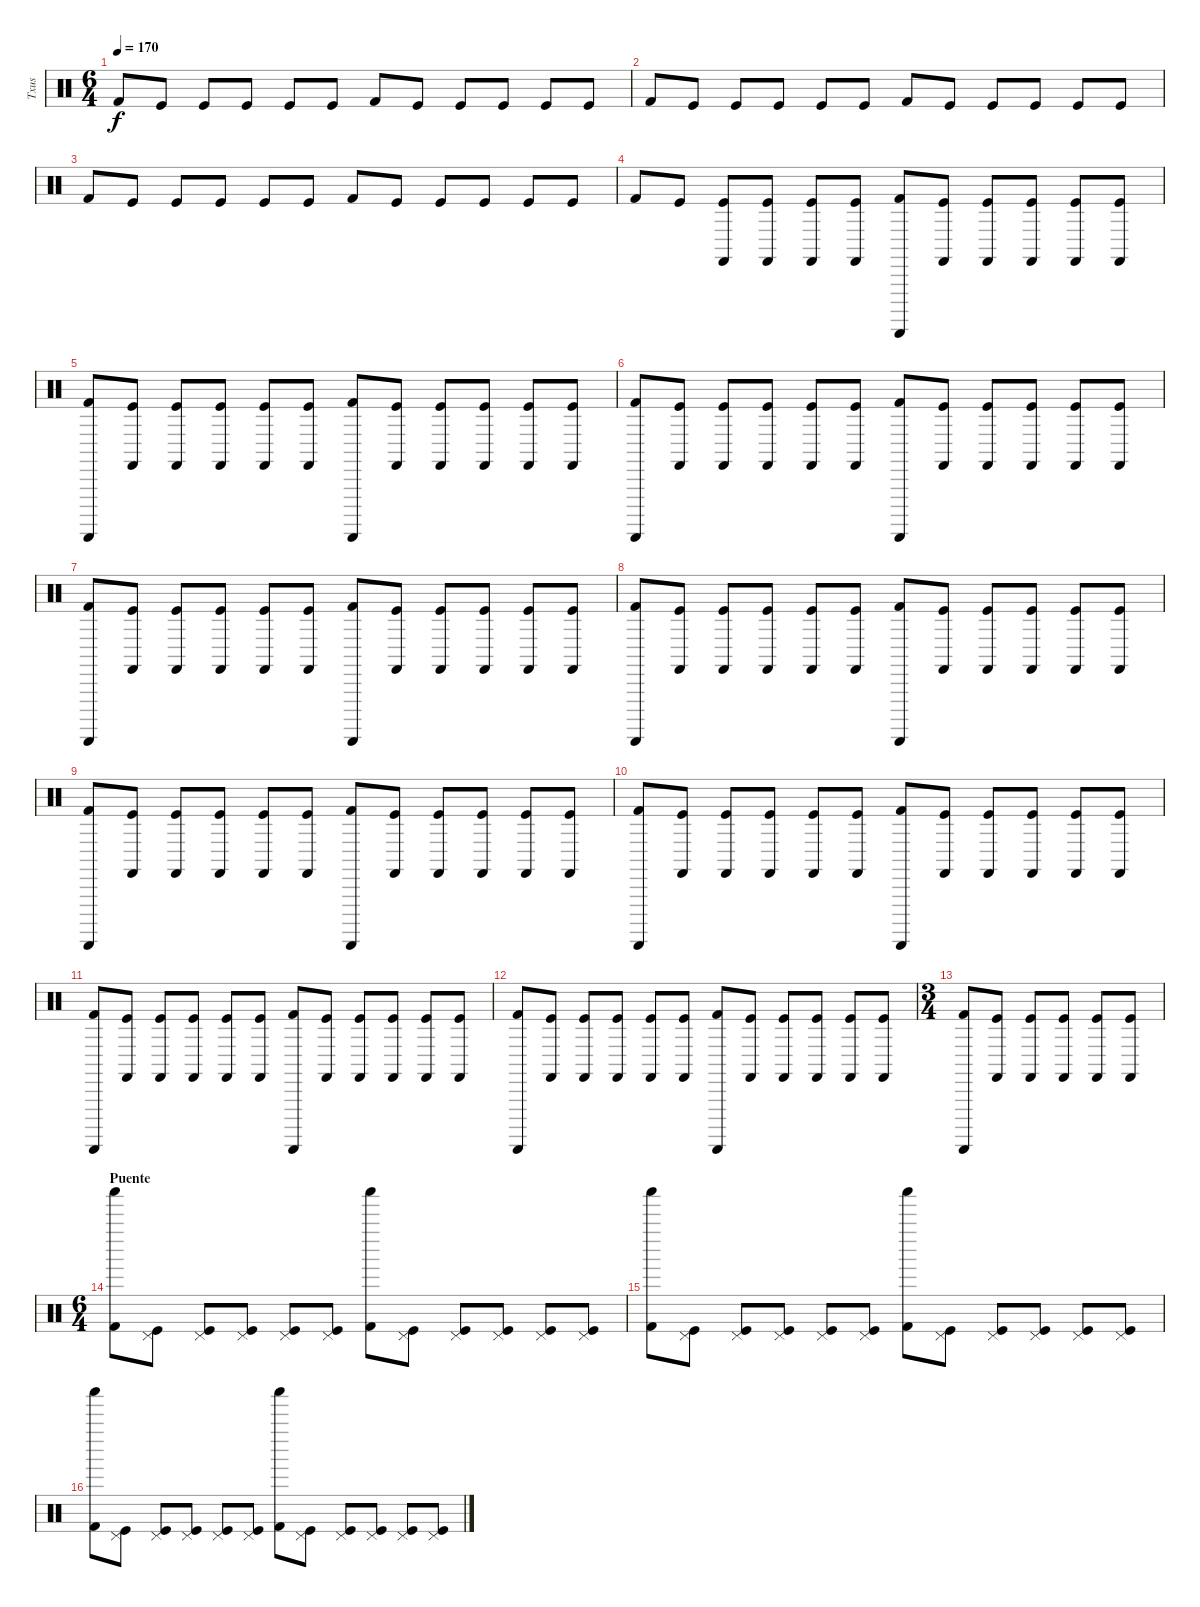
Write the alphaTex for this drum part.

\track ("Txus" "Txus") {instrument percussion}
\staff {score}
\articulation defaults
\ts (6 4)
\tempo 170
\clef neutral
\ks c "Kick (hit) 2".8{dy f} "Kick (hit)".8 "Kick (hit)".8 "Kick (hit)".8 "Kick (hit)".8 "Kick (hit)".8 "Kick (hit) 2".8 "Kick (hit)".8 "Kick (hit)".8 "Kick (hit)".8 "Kick (hit)".8 "Kick (hit)".8
|
"Kick (hit) 2".8 "Kick (hit)".8 "Kick (hit)".8 "Kick (hit)".8 "Kick (hit)".8 "Kick (hit)".8 "Kick (hit) 2".8 "Kick (hit)".8 "Kick (hit)".8 "Kick (hit)".8 "Kick (hit)".8 "Kick (hit)".8 |
"Kick (hit) 2".8 "Kick (hit)".8 "Kick (hit)".8 "Kick (hit)".8 "Kick (hit)".8 "Kick (hit)".8 "Kick (hit) 2".8 "Kick (hit)".8 "Kick (hit)".8 "Kick (hit)".8 "Kick (hit)".8 "Kick (hit)".8 |
"Kick (hit) 2".8 "Kick (hit)".8 ("Kick (hit)" "Castanets (hit)").8 ("Kick (hit)" "Castanets (hit)").8 ("Kick (hit)" "Castanets (hit)").8 ("Kick (hit)" "Castanets (hit)").8 ("Kick (hit) 2" "Guiro (scrap-return)").8 ("Kick (hit)" "Castanets (hit)").8 ("Kick (hit)" "Castanets (hit)").8 ("Kick (hit)" "Castanets (hit)").8 ("Kick (hit)" "Castanets (hit)").8 ("Kick (hit)" "Castanets (hit)").8 |
("Kick (hit) 2" "Guiro (scrap-return)").8 ("Kick (hit)" "Castanets (hit)").8 ("Kick (hit)" "Castanets (hit)").8 ("Kick (hit)" "Castanets (hit)").8 ("Kick (hit)" "Castanets (hit)").8 ("Kick (hit)" "Castanets (hit)").8 ("Kick (hit) 2" "Guiro (scrap-return)").8 ("Kick (hit)" "Castanets (hit)").8 ("Kick (hit)" "Castanets (hit)").8 ("Kick (hit)" "Castanets (hit)").8 ("Kick (hit)" "Castanets (hit)").8 ("Kick (hit)" "Castanets (hit)").8 |
("Kick (hit) 2" "Guiro (scrap-return)").8 ("Kick (hit)" "Castanets (hit)").8 ("Kick (hit)" "Castanets (hit)").8 ("Kick (hit)" "Castanets (hit)").8 ("Kick (hit)" "Castanets (hit)").8 ("Kick (hit)" "Castanets (hit)").8 ("Kick (hit) 2" "Guiro (scrap-return)").8 ("Kick (hit)" "Castanets (hit)").8 ("Kick (hit)" "Castanets (hit)").8 ("Kick (hit)" "Castanets (hit)").8 ("Kick (hit)" "Castanets (hit)").8 ("Kick (hit)" "Castanets (hit)").8 |
("Kick (hit) 2" "Guiro (scrap-return)").8 ("Kick (hit)" "Castanets (hit)").8 ("Kick (hit)" "Castanets (hit)").8 ("Kick (hit)" "Castanets (hit)").8 ("Kick (hit)" "Castanets (hit)").8 ("Kick (hit)" "Castanets (hit)").8 ("Kick (hit) 2" "Guiro (scrap-return)").8 ("Kick (hit)" "Castanets (hit)").8 ("Kick (hit)" "Castanets (hit)").8 ("Kick (hit)" "Castanets (hit)").8 ("Kick (hit)" "Castanets (hit)").8 ("Kick (hit)" "Castanets (hit)").8 |
("Kick (hit) 2" "Guiro (scrap-return)").8 ("Kick (hit)" "Castanets (hit)").8 ("Kick (hit)" "Castanets (hit)").8 ("Kick (hit)" "Castanets (hit)").8 ("Kick (hit)" "Castanets (hit)").8 ("Kick (hit)" "Castanets (hit)").8 ("Kick (hit) 2" "Guiro (scrap-return)").8 ("Kick (hit)" "Castanets (hit)").8 ("Kick (hit)" "Castanets (hit)").8 ("Kick (hit)" "Castanets (hit)").8 ("Kick (hit)" "Castanets (hit)").8 ("Kick (hit)" "Castanets (hit)").8 |
("Kick (hit) 2" "Guiro (scrap-return)").8 ("Kick (hit)" "Castanets (hit)").8 ("Kick (hit)" "Castanets (hit)").8 ("Kick (hit)" "Castanets (hit)").8 ("Kick (hit)" "Castanets (hit)").8 ("Kick (hit)" "Castanets (hit)").8 ("Kick (hit) 2" "Guiro (scrap-return)").8 ("Kick (hit)" "Castanets (hit)").8 ("Kick (hit)" "Castanets (hit)").8 ("Kick (hit)" "Castanets (hit)").8 ("Kick (hit)" "Castanets (hit)").8 ("Kick (hit)" "Castanets (hit)").8 |
("Kick (hit) 2" "Guiro (scrap-return)").8 ("Kick (hit)" "Castanets (hit)").8 ("Kick (hit)" "Castanets (hit)").8 ("Kick (hit)" "Castanets (hit)").8 ("Kick (hit)" "Castanets (hit)").8 ("Kick (hit)" "Castanets (hit)").8 ("Kick (hit) 2" "Guiro (scrap-return)").8 ("Kick (hit)" "Castanets (hit)").8 ("Kick (hit)" "Castanets (hit)").8 ("Kick (hit)" "Castanets (hit)").8 ("Kick (hit)" "Castanets (hit)").8 ("Kick (hit)" "Castanets (hit)").8 |
("Kick (hit) 2" "Guiro (scrap-return)").8 ("Kick (hit)" "Castanets (hit)").8 ("Kick (hit)" "Castanets (hit)").8 ("Kick (hit)" "Castanets (hit)").8 ("Kick (hit)" "Castanets (hit)").8 ("Kick (hit)" "Castanets (hit)").8 ("Kick (hit) 2" "Guiro (scrap-return)").8 ("Kick (hit)" "Castanets (hit)").8 ("Kick (hit)" "Castanets (hit)").8 ("Kick (hit)" "Castanets (hit)").8 ("Kick (hit)" "Castanets (hit)").8 ("Kick (hit)" "Castanets (hit)").8 |
("Kick (hit) 2" "Guiro (scrap-return)").8 ("Kick (hit)" "Castanets (hit)").8 ("Kick (hit)" "Castanets (hit)").8 ("Kick (hit)" "Castanets (hit)").8 ("Kick (hit)" "Castanets (hit)").8 ("Kick (hit)" "Castanets (hit)").8 ("Kick (hit) 2" "Guiro (scrap-return)").8 ("Kick (hit)" "Castanets (hit)").8 ("Kick (hit)" "Castanets (hit)").8 ("Kick (hit)" "Castanets (hit)").8 ("Kick (hit)" "Castanets (hit)").8 ("Kick (hit)" "Castanets (hit)").8 |
\ts (3 4)
("Kick (hit) 2" "Guiro (scrap-return)").8 ("Kick (hit)" "Castanets (hit)").8 ("Kick (hit)" "Castanets (hit)").8 ("Kick (hit)" "Castanets (hit)").8 ("Kick (hit)" "Castanets (hit)").8 ("Kick (hit)" "Castanets (hit)").8 |
\ts (6 4)
\section ("" "Puente")
("Kick (hit) 2" "Shaker (hit)").8 ("Kick (hit)" "Pedal Hi-Hat (hit)").8 ("Kick (hit)" "Pedal Hi-Hat (hit)").8 ("Kick (hit)" "Pedal Hi-Hat (hit)").8 ("Kick (hit)" "Pedal Hi-Hat (hit)").8 ("Kick (hit)" "Pedal Hi-Hat (hit)").8 ("Kick (hit) 2" "Shaker (hit)").8 ("Kick (hit)" "Pedal Hi-Hat (hit)").8 ("Kick (hit)" "Pedal Hi-Hat (hit)").8 ("Kick (hit)" "Pedal Hi-Hat (hit)").8 ("Kick (hit)" "Pedal Hi-Hat (hit)").8 ("Kick (hit)" "Pedal Hi-Hat (hit)").8 |
("Kick (hit) 2" "Shaker (hit)").8 ("Kick (hit)" "Pedal Hi-Hat (hit)").8 ("Kick (hit)" "Pedal Hi-Hat (hit)").8 ("Kick (hit)" "Pedal Hi-Hat (hit)").8 ("Kick (hit)" "Pedal Hi-Hat (hit)").8 ("Kick (hit)" "Pedal Hi-Hat (hit)").8 ("Kick (hit) 2" "Shaker (hit)").8 ("Kick (hit)" "Pedal Hi-Hat (hit)").8 ("Kick (hit)" "Pedal Hi-Hat (hit)").8 ("Kick (hit)" "Pedal Hi-Hat (hit)").8 ("Kick (hit)" "Pedal Hi-Hat (hit)").8 ("Kick (hit)" "Pedal Hi-Hat (hit)").8 |
("Kick (hit) 2" "Shaker (hit)").8 ("Kick (hit)" "Pedal Hi-Hat (hit)").8 ("Kick (hit)" "Pedal Hi-Hat (hit)").8 ("Kick (hit)" "Pedal Hi-Hat (hit)").8 ("Kick (hit)" "Pedal Hi-Hat (hit)").8 ("Kick (hit)" "Pedal Hi-Hat (hit)").8 ("Kick (hit) 2" "Shaker (hit)").8 ("Kick (hit)" "Pedal Hi-Hat (hit)").8 ("Kick (hit)" "Pedal Hi-Hat (hit)").8 ("Kick (hit)" "Pedal Hi-Hat (hit)").8 ("Kick (hit)" "Pedal Hi-Hat (hit)").8 ("Kick (hit)" "Pedal Hi-Hat (hit)").8
